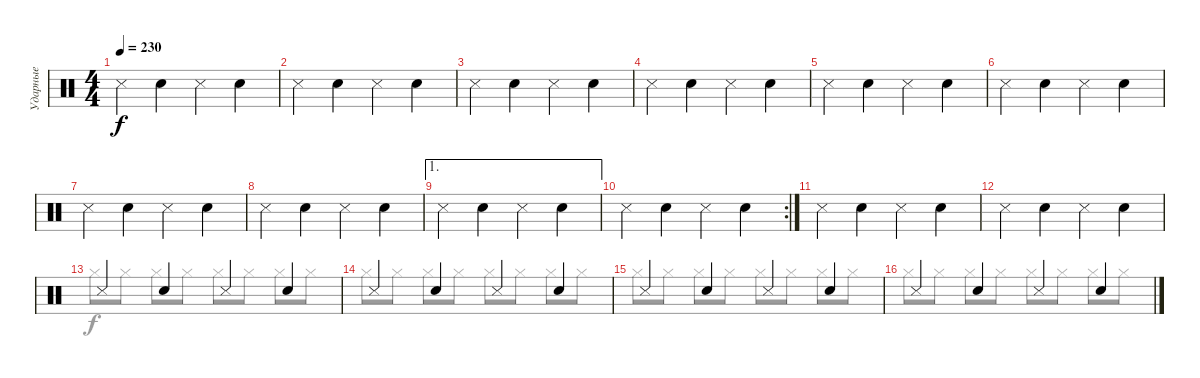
\track ("Ударные" "Ударные") {instrument percussion}
\staff {score}
\articulation defaults
\voice
\ts (4 4)
\tempo 230
\clef neutral
\ks c "Snare (side stick) 3".4{dy f} "Hand Clap (hit)".4 "Snare (side stick) 3".4 "Hand Clap (hit)".4
|
"Snare (side stick) 3".4 "Hand Clap (hit)".4 "Snare (side stick) 3".4 "Hand Clap (hit)".4 |
"Snare (side stick) 3".4 "Hand Clap (hit)".4 "Snare (side stick) 3".4 "Hand Clap (hit)".4 |
"Snare (side stick) 3".4 "Hand Clap (hit)".4 "Snare (side stick) 3".4 "Hand Clap (hit)".4 |
"Snare (side stick) 3".4 "Hand Clap (hit)".4 "Snare (side stick) 3".4 "Hand Clap (hit)".4 |
"Snare (side stick) 3".4 "Hand Clap (hit)".4 "Snare (side stick) 3".4 "Hand Clap (hit)".4 |
"Snare (side stick) 3".4 "Hand Clap (hit)".4 "Snare (side stick) 3".4 "Hand Clap (hit)".4 |
"Snare (side stick) 3".4 "Hand Clap (hit)".4 "Snare (side stick) 3".4 "Hand Clap (hit)".4 |
\ae 1 "Snare (side stick) 3".4 "Hand Clap (hit)".4 "Snare (side stick) 3".4 "Hand Clap (hit)".4
|
\rc 2 "Snare (side stick) 3".4 "Hand Clap (hit)".4 "Snare (side stick) 3".4 "Hand Clap (hit)".4
|
"Snare (side stick) 3".4 "Hand Clap (hit)".4 "Snare (side stick) 3".4 "Hand Clap (hit)".4 |
"Snare (side stick) 3".4 "Hand Clap (hit)".4 "Snare (side stick) 3".4 "Hand Clap (hit)".4 |
"Snare (side stick) 3".4 "Hand Clap (hit)".4 "Snare (side stick) 3".4 "Hand Clap (hit)".4 |
"Snare (side stick) 3".4 "Hand Clap (hit)".4 "Snare (side stick) 3".4 "Hand Clap (hit)".4 |
"Snare (side stick) 3".4 "Hand Clap (hit)".4 "Snare (side stick) 3".4 "Hand Clap (hit)".4 |
"Snare (side stick) 3".4 "Hand Clap (hit)".4 "Snare (side stick) 3".4 "Hand Clap (hit)".4
\voice
\clef neutral
\ottava regular
\simile none
\ks c
|
|
|
|
|
|
|
|
|
|
|
|
"Hi-Hat (closed)".8 "Hi-Hat (closed)".8 "Hi-Hat (closed)".8 "Hi-Hat (closed)".8 "Hi-Hat (closed)".8 "Hi-Hat (closed)".8 "Hi-Hat (closed)".8 "Hi-Hat (closed)".8 |
"Hi-Hat (closed)".8 "Hi-Hat (closed)".8 "Hi-Hat (closed)".8 "Hi-Hat (closed)".8 "Hi-Hat (closed)".8 "Hi-Hat (closed)".8 "Hi-Hat (closed)".8 "Hi-Hat (closed)".8 |
"Hi-Hat (closed)".8 "Hi-Hat (closed)".8 "Hi-Hat (closed)".8 "Hi-Hat (closed)".8 "Hi-Hat (closed)".8 "Hi-Hat (closed)".8 "Hi-Hat (closed)".8 "Hi-Hat (closed)".8 |
"Hi-Hat (closed)".8 "Hi-Hat (closed)".8 "Hi-Hat (closed)".8 "Hi-Hat (closed)".8 "Hi-Hat (closed)".8 "Hi-Hat (closed)".8 "Hi-Hat (closed)".8 "Hi-Hat (closed)".8
